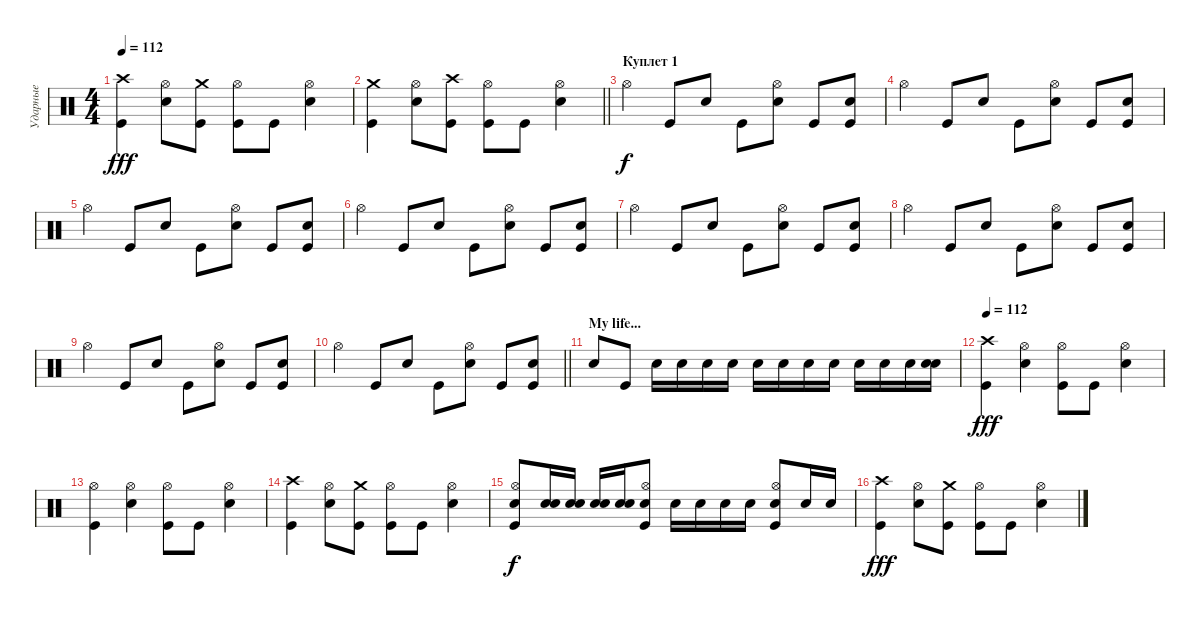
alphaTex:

\track ("Ударные" "Ударные") {instrument percussion}
\staff {score}
\articulation defaults
\ts (4 4)
\tempo 112
\clef neutral
\ks c
("Crash high (hit)" "Kick (hit)").4{dy fff} ("Hi-Hat (open)" "Electric Snare (hit)").8 ("Crash medium (hit)" "Kick (hit)").8 ("Hi-Hat (open)" "Kick (hit)").8 "Kick (hit)".8 ("Hi-Hat (open)" "Electric Snare (hit)").4 |
\barLineRight lightlight
("Crash medium (hit)" "Kick (hit)").4 ("Hi-Hat (open)" "Electric Snare (hit)").8 ("Crash high (hit)" "Kick (hit)").8 ("Hi-Hat (open)" "Kick (hit)").8 "Kick (hit)".8 ("Hi-Hat (open)" "Electric Snare (hit)").4 |
\section ("" "Куплет 1")
"Hi-Hat (open)".4{dy f} "Kick (hit)".8 "Snare (hit) 2".8 "Kick (hit)".8 ("Snare (hit) 2" "Hi-Hat (open)").8 "Kick (hit)".8 ("Kick (hit)" "Snare (hit) 2").8 |
"Hi-Hat (open)".4 "Kick (hit)".8 "Snare (hit) 2".8 "Kick (hit)".8 ("Snare (hit) 2" "Hi-Hat (open)").8 "Kick (hit)".8 ("Kick (hit)" "Snare (hit) 2").8 |
"Hi-Hat (open)".4 "Kick (hit)".8 "Snare (hit) 2".8 "Kick (hit)".8 ("Snare (hit) 2" "Hi-Hat (open)").8 "Kick (hit)".8 ("Kick (hit)" "Snare (hit) 2").8 |
"Hi-Hat (open)".4 "Kick (hit)".8 "Snare (hit) 2".8 "Kick (hit)".8 ("Snare (hit) 2" "Hi-Hat (open)").8 "Kick (hit)".8 ("Kick (hit)" "Snare (hit) 2").8 |
"Hi-Hat (open)".4 "Kick (hit)".8 "Snare (hit) 2".8 "Kick (hit)".8 ("Snare (hit) 2" "Hi-Hat (open)").8 "Kick (hit)".8 ("Kick (hit)" "Snare (hit) 2").8 |
"Hi-Hat (open)".4 "Kick (hit)".8 "Snare (hit) 2".8 "Kick (hit)".8 ("Snare (hit) 2" "Hi-Hat (open)").8 "Kick (hit)".8 ("Kick (hit)" "Snare (hit) 2").8 |
"Hi-Hat (open)".4 "Kick (hit)".8 "Snare (hit) 2".8 "Kick (hit)".8 ("Snare (hit) 2" "Hi-Hat (open)").8 "Kick (hit)".8 ("Kick (hit)" "Snare (hit) 2").8 |
\barLineRight lightlight "Hi-Hat (open)".4 "Kick (hit)".8 "Snare (hit) 2".8 "Kick (hit)".8
("Snare (hit) 2" "Hi-Hat (open)").8 "Kick (hit)".8 ("Kick (hit)" "Snare (hit) 2").8 |
\section ("" "My life...")
"Snare (hit) 2".8 "Kick (hit)".8 "Snare (hit) 2".16 "Snare (hit) 2".16 "Snare (hit) 2".16 "Snare (hit) 2".16 "Snare (hit) 2".16 "Snare (hit) 2".16 "Snare (hit) 2".16 "Snare (hit) 2".16 "Snare (hit) 2".16 "Snare (hit) 2".16 "Snare (hit) 2".16 ("Snare (hit) 2" "Snare (hit) 2").16 |
\tempo 112
("Crash high (hit)" "Kick (hit)").4{dy fff} ("Hi-Hat (open)" "Electric Snare (hit)").4 ("Hi-Hat (open)" "Kick (hit)").8 "Kick (hit)".8 ("Hi-Hat (open)" "Electric Snare (hit)").4 |
("Hi-Hat (open)" "Kick (hit)").4 ("Hi-Hat (open)" "Electric Snare (hit)").4 ("Hi-Hat (open)" "Kick (hit)").8 "Kick (hit)".8 ("Hi-Hat (open)" "Electric Snare (hit)").4 |
("Crash high (hit)" "Kick (hit)").4 ("Hi-Hat (open)" "Electric Snare (hit)").8 ("Crash medium (hit)" "Kick (hit)").8 ("Hi-Hat (open)" "Kick (hit)").8 "Kick (hit)".8 ("Hi-Hat (open)" "Electric Snare (hit)").4 |
("Snare (hit) 2" "Kick (hit)" "Hi-Hat (open)").8{dy f} ("Snare (hit) 2" "Snare (hit) 2").16 ("Snare (hit) 2" "Snare (hit) 2").16 ("Snare (hit) 2" "Snare (hit) 2").16 ("Snare (hit) 2" "Snare (hit) 2").16 ("Snare (hit) 2" "Kick (hit)" "Hi-Hat (open)").8 "Snare (hit) 2".16 "Snare (hit) 2".16 "Snare (hit) 2".16 "Snare (hit) 2".16 ("Snare (hit) 2" "Kick (hit)" "Hi-Hat (open)").8 "Snare (hit) 2".16 "Snare (hit) 2".16 |
("Crash high (hit)" "Kick (hit)").4{dy fff} ("Hi-Hat (open)" "Electric Snare (hit)").8 ("Crash medium (hit)" "Kick (hit)").8 ("Hi-Hat (open)" "Kick (hit)").8 "Kick (hit)".8 ("Hi-Hat (open)" "Electric Snare (hit)").4
